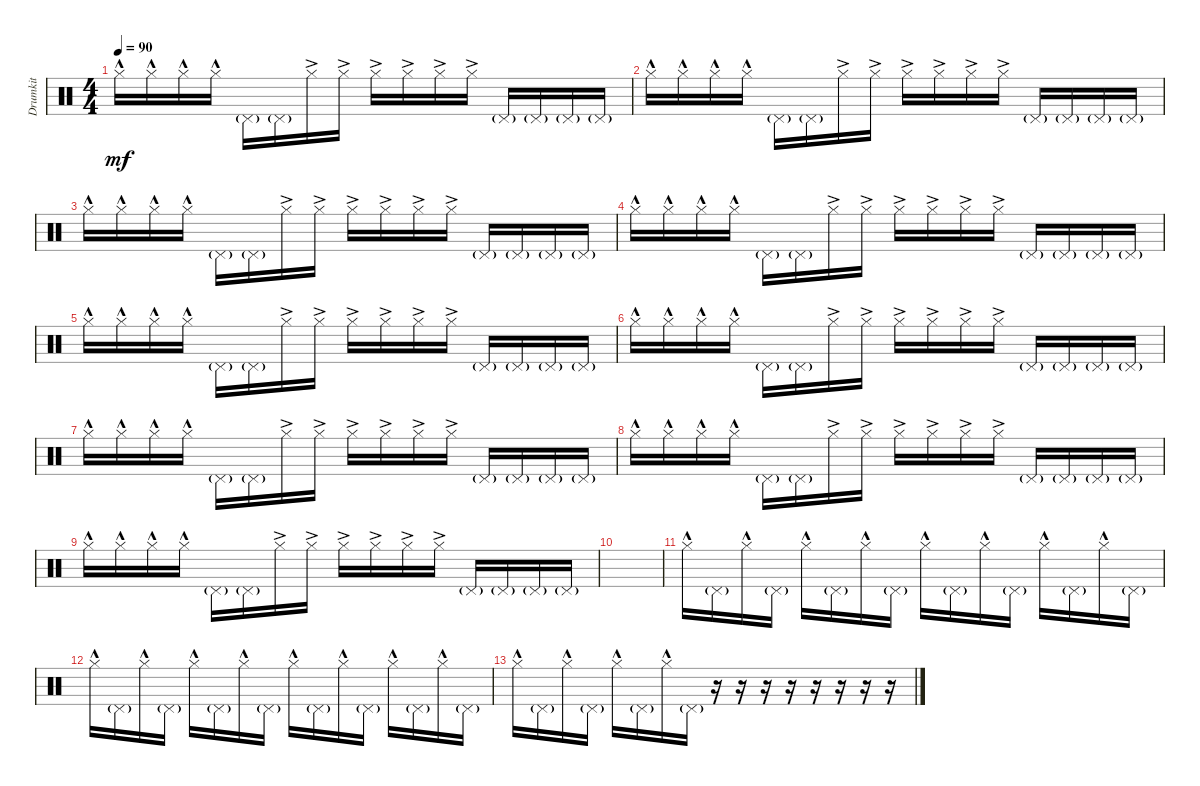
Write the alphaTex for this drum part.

\track ("Drumkit" "Drumkit") {instrument percussion}
\staff {score}
\articulation defaults
\ts (4 4)
\tempo 90
\clef neutral
\ks c "Hi-Hat (closed)"{hac}.16{dy mf} "Hi-Hat (closed)"{hac}.16 "Hi-Hat (closed)"{hac}.16 "Hi-Hat (closed)"{hac}.16 "Pedal Hi-Hat (hit)"{g}.16 "Pedal Hi-Hat (hit)"{g}.16 "Hi-Hat (closed)"{ac}.16 "Hi-Hat (closed)"{ac}.16 "Hi-Hat (closed)"{ac}.16 "Hi-Hat (closed)"{ac}.16 "Hi-Hat (closed)"{ac}.16 "Hi-Hat (closed)"{ac}.16 "Pedal Hi-Hat (hit)"{g}.16 "Pedal Hi-Hat (hit)"{g}.16 "Pedal Hi-Hat (hit)"{g}.16 "Pedal Hi-Hat (hit)"{g}.16
|
"Hi-Hat (closed)"{hac}.16 "Hi-Hat (closed)"{hac}.16 "Hi-Hat (closed)"{hac}.16 "Hi-Hat (closed)"{hac}.16 "Pedal Hi-Hat (hit)"{g}.16 "Pedal Hi-Hat (hit)"{g}.16 "Hi-Hat (closed)"{ac}.16 "Hi-Hat (closed)"{ac}.16 "Hi-Hat (closed)"{ac}.16 "Hi-Hat (closed)"{ac}.16 "Hi-Hat (closed)"{ac}.16 "Hi-Hat (closed)"{ac}.16 "Pedal Hi-Hat (hit)"{g}.16 "Pedal Hi-Hat (hit)"{g}.16 "Pedal Hi-Hat (hit)"{g}.16 "Pedal Hi-Hat (hit)"{g}.16 |
"Hi-Hat (closed)"{hac}.16 "Hi-Hat (closed)"{hac}.16 "Hi-Hat (closed)"{hac}.16 "Hi-Hat (closed)"{hac}.16 "Pedal Hi-Hat (hit)"{g}.16 "Pedal Hi-Hat (hit)"{g}.16 "Hi-Hat (closed)"{ac}.16 "Hi-Hat (closed)"{ac}.16 "Hi-Hat (closed)"{ac}.16 "Hi-Hat (closed)"{ac}.16 "Hi-Hat (closed)"{ac}.16 "Hi-Hat (closed)"{ac}.16 "Pedal Hi-Hat (hit)"{g}.16 "Pedal Hi-Hat (hit)"{g}.16 "Pedal Hi-Hat (hit)"{g}.16 "Pedal Hi-Hat (hit)"{g}.16 |
"Hi-Hat (closed)"{hac}.16 "Hi-Hat (closed)"{hac}.16 "Hi-Hat (closed)"{hac}.16 "Hi-Hat (closed)"{hac}.16 "Pedal Hi-Hat (hit)"{g}.16 "Pedal Hi-Hat (hit)"{g}.16 "Hi-Hat (closed)"{ac}.16 "Hi-Hat (closed)"{ac}.16 "Hi-Hat (closed)"{ac}.16 "Hi-Hat (closed)"{ac}.16 "Hi-Hat (closed)"{ac}.16 "Hi-Hat (closed)"{ac}.16 "Pedal Hi-Hat (hit)"{g}.16 "Pedal Hi-Hat (hit)"{g}.16 "Pedal Hi-Hat (hit)"{g}.16 "Pedal Hi-Hat (hit)"{g}.16 |
"Hi-Hat (closed)"{hac}.16 "Hi-Hat (closed)"{hac}.16 "Hi-Hat (closed)"{hac}.16 "Hi-Hat (closed)"{hac}.16 "Pedal Hi-Hat (hit)"{g}.16 "Pedal Hi-Hat (hit)"{g}.16 "Hi-Hat (closed)"{ac}.16 "Hi-Hat (closed)"{ac}.16 "Hi-Hat (closed)"{ac}.16 "Hi-Hat (closed)"{ac}.16 "Hi-Hat (closed)"{ac}.16 "Hi-Hat (closed)"{ac}.16 "Pedal Hi-Hat (hit)"{g}.16 "Pedal Hi-Hat (hit)"{g}.16 "Pedal Hi-Hat (hit)"{g}.16 "Pedal Hi-Hat (hit)"{g}.16 |
"Hi-Hat (closed)"{hac}.16 "Hi-Hat (closed)"{hac}.16 "Hi-Hat (closed)"{hac}.16 "Hi-Hat (closed)"{hac}.16 "Pedal Hi-Hat (hit)"{g}.16 "Pedal Hi-Hat (hit)"{g}.16 "Hi-Hat (closed)"{ac}.16 "Hi-Hat (closed)"{ac}.16 "Hi-Hat (closed)"{ac}.16 "Hi-Hat (closed)"{ac}.16 "Hi-Hat (closed)"{ac}.16 "Hi-Hat (closed)"{ac}.16 "Pedal Hi-Hat (hit)"{g}.16 "Pedal Hi-Hat (hit)"{g}.16 "Pedal Hi-Hat (hit)"{g}.16 "Pedal Hi-Hat (hit)"{g}.16 |
"Hi-Hat (closed)"{hac}.16 "Hi-Hat (closed)"{hac}.16 "Hi-Hat (closed)"{hac}.16 "Hi-Hat (closed)"{hac}.16 "Pedal Hi-Hat (hit)"{g}.16 "Pedal Hi-Hat (hit)"{g}.16 "Hi-Hat (closed)"{ac}.16 "Hi-Hat (closed)"{ac}.16 "Hi-Hat (closed)"{ac}.16 "Hi-Hat (closed)"{ac}.16 "Hi-Hat (closed)"{ac}.16 "Hi-Hat (closed)"{ac}.16 "Pedal Hi-Hat (hit)"{g}.16 "Pedal Hi-Hat (hit)"{g}.16 "Pedal Hi-Hat (hit)"{g}.16 "Pedal Hi-Hat (hit)"{g}.16 |
"Hi-Hat (closed)"{hac}.16 "Hi-Hat (closed)"{hac}.16 "Hi-Hat (closed)"{hac}.16 "Hi-Hat (closed)"{hac}.16 "Pedal Hi-Hat (hit)"{g}.16 "Pedal Hi-Hat (hit)"{g}.16 "Hi-Hat (closed)"{ac}.16 "Hi-Hat (closed)"{ac}.16 "Hi-Hat (closed)"{ac}.16 "Hi-Hat (closed)"{ac}.16 "Hi-Hat (closed)"{ac}.16 "Hi-Hat (closed)"{ac}.16 "Pedal Hi-Hat (hit)"{g}.16 "Pedal Hi-Hat (hit)"{g}.16 "Pedal Hi-Hat (hit)"{g}.16 "Pedal Hi-Hat (hit)"{g}.16 |
"Hi-Hat (closed)"{hac}.16 "Hi-Hat (closed)"{hac}.16 "Hi-Hat (closed)"{hac}.16 "Hi-Hat (closed)"{hac}.16 "Pedal Hi-Hat (hit)"{g}.16 "Pedal Hi-Hat (hit)"{g}.16 "Hi-Hat (closed)"{ac}.16 "Hi-Hat (closed)"{ac}.16 "Hi-Hat (closed)"{ac}.16 "Hi-Hat (closed)"{ac}.16 "Hi-Hat (closed)"{ac}.16 "Hi-Hat (closed)"{ac}.16 "Pedal Hi-Hat (hit)"{g}.16 "Pedal Hi-Hat (hit)"{g}.16 "Pedal Hi-Hat (hit)"{g}.16 "Pedal Hi-Hat (hit)"{g}.16 |
|
"Hi-Hat (closed)"{hac}.16 "Pedal Hi-Hat (hit)"{g}.16 "Hi-Hat (closed)"{hac}.16 "Pedal Hi-Hat (hit)"{g}.16 "Hi-Hat (closed)"{hac}.16 "Pedal Hi-Hat (hit)"{g}.16 "Hi-Hat (closed)"{hac}.16 "Pedal Hi-Hat (hit)"{g}.16 "Hi-Hat (closed)"{hac}.16 "Pedal Hi-Hat (hit)"{g}.16 "Hi-Hat (closed)"{hac}.16 "Pedal Hi-Hat (hit)"{g}.16 "Hi-Hat (closed)"{hac}.16 "Pedal Hi-Hat (hit)"{g}.16 "Hi-Hat (closed)"{hac}.16 "Pedal Hi-Hat (hit)"{g}.16 |
"Hi-Hat (closed)"{hac}.16 "Pedal Hi-Hat (hit)"{g}.16 "Hi-Hat (closed)"{hac}.16 "Pedal Hi-Hat (hit)"{g}.16 "Hi-Hat (closed)"{hac}.16 "Pedal Hi-Hat (hit)"{g}.16 "Hi-Hat (closed)"{hac}.16 "Pedal Hi-Hat (hit)"{g}.16 "Hi-Hat (closed)"{hac}.16 "Pedal Hi-Hat (hit)"{g}.16 "Hi-Hat (closed)"{hac}.16 "Pedal Hi-Hat (hit)"{g}.16 "Hi-Hat (closed)"{hac}.16 "Pedal Hi-Hat (hit)"{g}.16 "Hi-Hat (closed)"{hac}.16 "Pedal Hi-Hat (hit)"{g}.16 |
"Hi-Hat (closed)"{hac}.16 "Pedal Hi-Hat (hit)"{g}.16 "Hi-Hat (closed)"{hac}.16 "Pedal Hi-Hat (hit)"{g}.16 "Hi-Hat (closed)"{hac}.16 "Pedal Hi-Hat (hit)"{g}.16 "Hi-Hat (closed)"{hac}.16 "Pedal Hi-Hat (hit)"{g}.16 r.16 r.16 r.16 r.16 r.16 r.16 r.16 r.16
